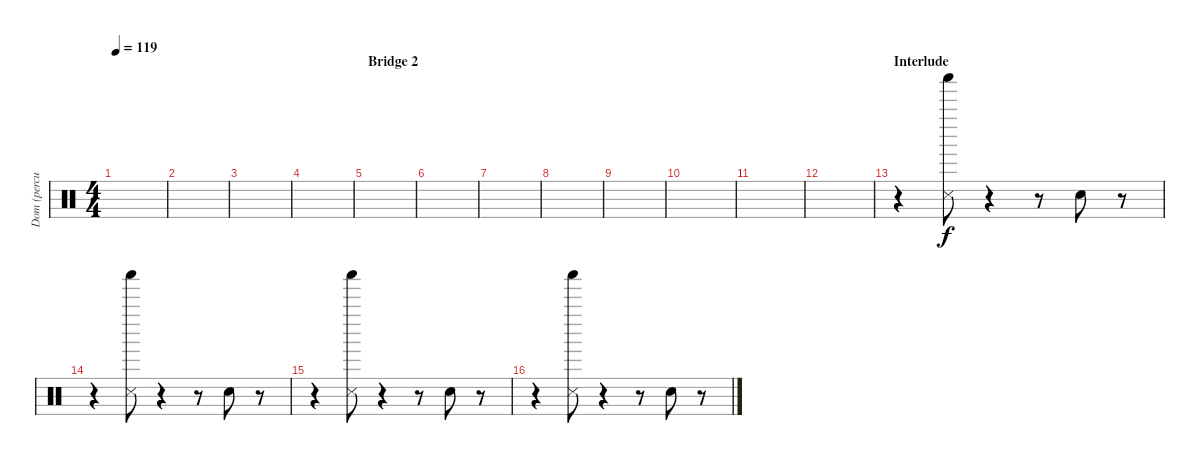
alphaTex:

\track ("Dom (percussions)" "Dom (percu") {instrument percussion}
\staff {score}
\articulation defaults
\ts (4 4)
\tempo 119
\clef neutral
\ks c
|
|
|
|
\section ("" "Bridge 2")
|
|
|
|
|
|
|
|
\section ("" "Interlude")
r.4 ("Shaker (hit)" "Metronome (hit)").8 r.4 r.8 "Hand Clap (hit)".8 r.8 |
r.4 ("Shaker (hit)" "Metronome (hit)").8 r.4 r.8 "Hand Clap (hit)".8 r.8 |
r.4 ("Shaker (hit)" "Metronome (hit)").8 r.4 r.8 "Hand Clap (hit)".8 r.8 |
r.4 ("Shaker (hit)" "Metronome (hit)").8 r.4 r.8 "Hand Clap (hit)".8 r.8
